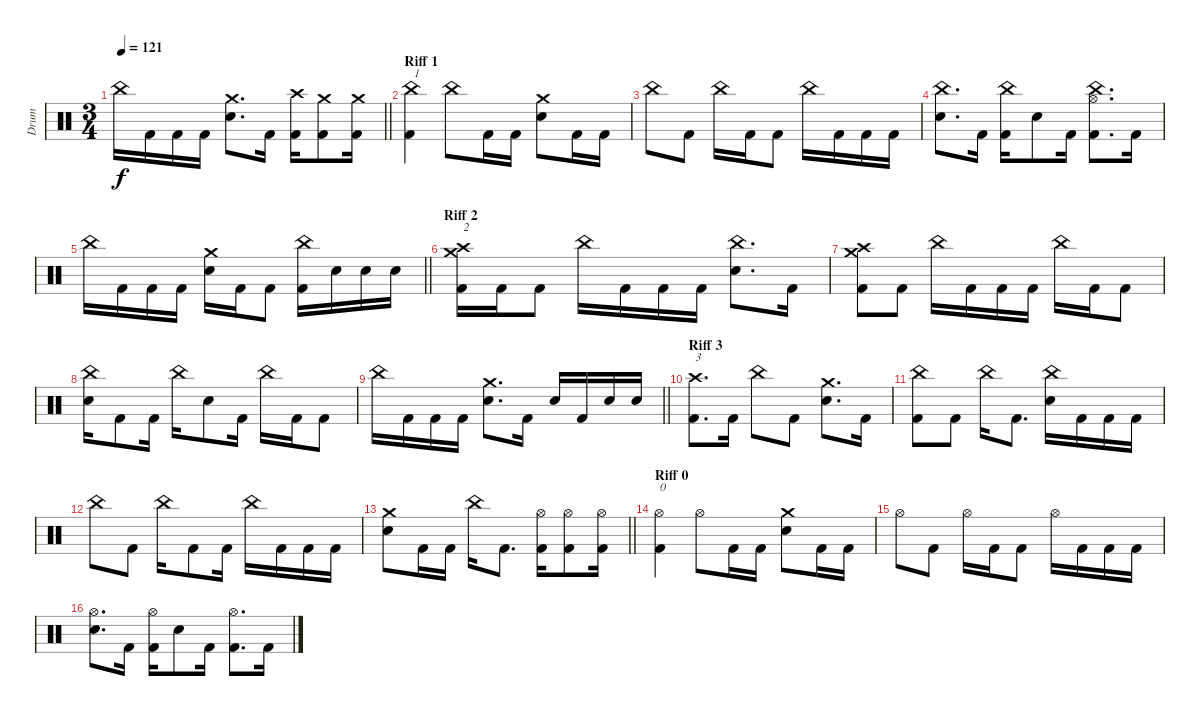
\track ("Drum" "Drum") {instrument percussion}
\staff
\articulation defaults
\ts (3 4)
\tempo 121
\clef neutral
\barLineRight lightlight
\ks c "China (hit)".16{dy f} "Kick (hit) 2".16 "Kick (hit) 2".16 "Kick (hit) 2".16
("Electric Snare (hit)" "Crash medium (hit)").8{d} "Kick (hit) 2".16 ("Kick (hit) 2" "Crash high (hit)").16 ("Kick (hit) 2" "Crash medium (hit)").8 ("Kick (hit) 2" "Crash medium (hit)").16 |
\section ("" "Riff 1")
("Kick (hit) 2" "China (hit)").4{txt "1"} "China (hit)".8 "Kick (hit) 2".16 "Kick (hit) 2".16 ("Electric Snare (hit)" "Crash medium (hit)").8 "Kick (hit) 2".16 "Kick (hit) 2".16 |
"China (hit)".8 "Kick (hit) 2".8 "China (hit)".16 "Kick (hit) 2".16 "Kick (hit) 2".8 "China (hit)".16 "Kick (hit) 2".16 "Kick (hit) 2".16 "Kick (hit) 2".16 |
("Electric Snare (hit)" "China (hit)").8{d} "Kick (hit) 2".16 ("Kick (hit) 2" "China (hit)").16 "Electric Snare (hit)".8 "Kick (hit) 2".16 ("Kick (hit) 2" "Hi-Hat (open)" "China (hit)").8{d} "Kick (hit) 2".16 |
\barLineRight lightlight "China (hit)".16 "Kick (hit) 2".16 "Kick (hit) 2".16 "Kick (hit) 2".16
("Electric Snare (hit)" "Crash medium (hit)").16 "Kick (hit) 2".16 "Kick (hit) 2".8 ("Kick (hit) 2" "China (hit)").16 "Electric Snare (hit)".16 "Electric Snare (hit)".16 "Electric Snare (hit)".16 |
\section ("" "Riff 2")
("Kick (hit) 2" "Crash medium (hit)" "Crash high (hit)").16{txt "2"} "Kick (hit) 2".16 "Kick (hit) 2".8 "China (hit)".16 "Kick (hit) 2".16 "Kick (hit) 2".16 "Kick (hit) 2".16 ("Electric Snare (hit)" "China (hit)").8{d} "Kick (hit) 2".16 |
("Kick (hit) 2" "Crash high (hit)" "Crash medium (hit)").8 "Kick (hit) 2".8 "China (hit)".16 "Kick (hit) 2".16 "Kick (hit) 2".16 "Kick (hit) 2".16 "China (hit)".16 "Kick (hit) 2".16 "Kick (hit) 2".8 |
("Electric Snare (hit)" "China (hit)").16 "Kick (hit) 2".8 "Kick (hit) 2".16 "China (hit)".16 "Electric Snare (hit)".8 "Kick (hit) 2".16 "China (hit)".16 "Kick (hit) 2".16 "Kick (hit) 2".8 |
\barLineRight lightlight "China (hit)".16 "Kick (hit) 2".16 "Kick (hit) 2".16 "Kick (hit) 2".16
("Electric Snare (hit)" "Crash medium (hit)").8{d} "Kick (hit) 2".16 "Electric Snare (hit)".16 "Kick (hit) 2".16 "Electric Snare (hit)".16 "Electric Snare (hit)".16 |
\section ("" "Riff 3")
("Kick (hit) 2" "Crash high (hit)").8{d txt "3"} "Kick (hit) 2".16 "China (hit)".8 "Kick (hit) 2".8 ("Electric Snare (hit)" "Crash medium (hit)").8{d} "Kick (hit) 2".16 |
("Kick (hit) 2" "China (hit)").8 "Kick (hit) 2".8 "China (hit)".16 "Kick (hit) 2".8{d} ("Electric Snare (hit)" "China (hit)").16 "Kick (hit) 2".16 "Kick (hit) 2".16 "Kick (hit) 2".16 |
"China (hit)".8 "Kick (hit) 2".8 "China (hit)".16 "Kick (hit) 2".8 "Kick (hit) 2".16 "China (hit)".16 "Kick (hit) 2".16 "Kick (hit) 2".16 "Kick (hit) 2".16 |
\barLineRight lightlight
("Electric Snare (hit)" "Crash medium (hit)").8 "Kick (hit) 2".16 "Kick (hit) 2".16 "China (hit)".16 "Kick (hit) 2".8{d} ("Kick (hit) 2" "Hi-Hat (open)").16 ("Kick (hit) 2" "Hi-Hat (open)").8 ("Kick (hit) 2" "Hi-Hat (open)").16 |
\section ("" "Riff 0")
("Kick (hit) 2" "Hi-Hat (open)").4{txt "0"} "Hi-Hat (open)".8 "Kick (hit) 2".16 "Kick (hit) 2".16 ("Electric Snare (hit)" "Crash medium (hit)").8 "Kick (hit) 2".16 "Kick (hit) 2".16 |
"Hi-Hat (open)".8 "Kick (hit) 2".8 "Hi-Hat (open)".16 "Kick (hit) 2".16 "Kick (hit) 2".8 "Hi-Hat (open)".16 "Kick (hit) 2".16 "Kick (hit) 2".16 "Kick (hit) 2".16 |
("Electric Snare (hit)" "Hi-Hat (open)").8{d} "Kick (hit) 2".16 ("Kick (hit) 2" "Hi-Hat (open)").16 "Electric Snare (hit)".8 "Kick (hit) 2".16 ("Kick (hit) 2" "Hi-Hat (open)").8{d} "Kick (hit) 2".16
